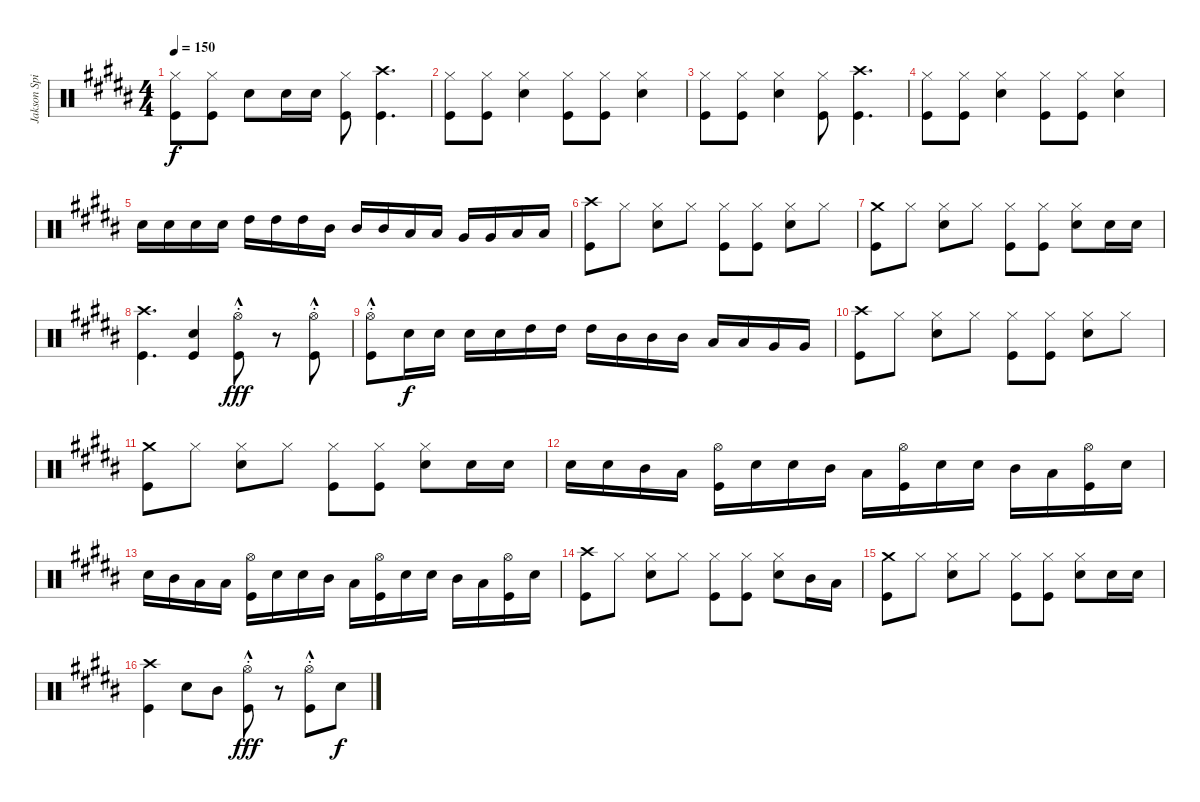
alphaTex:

\track ("Jakson Spires Drums" "Jakson Spi") {instrument percussion}
\staff {score}
\articulation defaults
\ts (4 4)
\tempo 150
\clef neutral
\ks b
("Hi-Hat (closed)" "Kick (hit)").8{dy f} ("Hi-Hat (closed)" "Kick (hit)").8 "Snare (hit) 2".8 "Snare (hit) 2".16 "Snare (hit) 2".16 ("Hi-Hat (closed)" "Kick (hit)").8 ("Crash high (hit)" "Kick (hit)").4{d} |
("Hi-Hat (closed)" "Kick (hit)").8 ("Hi-Hat (closed)" "Kick (hit)").8 ("Hi-Hat (closed)" "Snare (hit) 2").4 ("Hi-Hat (closed)" "Kick (hit)").8 ("Hi-Hat (closed)" "Kick (hit)").8 ("Hi-Hat (closed)" "Snare (hit) 2").4 |
("Hi-Hat (closed)" "Kick (hit)").8 ("Hi-Hat (closed)" "Kick (hit)").8 ("Hi-Hat (closed)" "Snare (hit) 2").4 ("Hi-Hat (closed)" "Kick (hit)").8 ("Crash high (hit)" "Kick (hit)").4{d} |
("Hi-Hat (closed)" "Kick (hit)").8 ("Hi-Hat (closed)" "Kick (hit)").8 ("Hi-Hat (closed)" "Snare (hit) 2").4 ("Hi-Hat (closed)" "Kick (hit)").8 ("Hi-Hat (closed)" "Kick (hit)").8 ("Hi-Hat (closed)" "Snare (hit) 2").4 |
"Snare (hit) 2".16 "Snare (hit) 2".16 "Snare (hit) 2".16 "Snare (hit) 2".16 "High Tom (hit)".16 "High Tom (hit)".16 "High Tom (hit)".16 "Mid Tom (hit)".16 "Mid Tom (hit)".16 "Mid Tom (hit)".16 "Low Tom (hit)".16 "Low Tom (hit)".16 "Very Low Tom (hit)".16 "Very Low Tom (hit)".16 "Low Floor Tom (hit)".16 "Low Floor Tom (hit)".16 |
("Crash high (hit)" "Kick (hit)").8 "Hi-Hat (closed)".8 ("Hi-Hat (closed)" "Snare (hit) 2").8 "Hi-Hat (closed)".8 ("Hi-Hat (closed)" "Kick (hit)").8 ("Hi-Hat (closed)" "Kick (hit)").8 ("Hi-Hat (closed)" "Snare (hit) 2").8 "Hi-Hat (closed)".8 |
("Crash medium (hit)" "Kick (hit)").8 "Hi-Hat (closed)".8 ("Hi-Hat (closed)" "Snare (hit) 2").8 "Hi-Hat (closed)".8 ("Hi-Hat (closed)" "Kick (hit)").8 ("Hi-Hat (closed)" "Kick (hit)").8 ("Hi-Hat (closed)" "Snare (hit) 2").8 "Snare (hit) 2".16 "Snare (hit) 2".16 |
("Crash high (hit)" "Kick (hit)").4{d} ("Snare (hit) 2" "Kick (hit)").4 ("Hi-Hat (open)"{hac st} "Kick (hit)").8{dy fff} r.8 ("Hi-Hat (open)"{hac st} "Kick (hit)").8 |
("Hi-Hat (open)"{hac st} "Kick (hit)").8 "Snare (hit) 2".16{dy f} "Snare (hit) 2".16 "Snare (hit) 2".16 "Snare (hit) 2".16 "High Tom (hit)".16 "High Tom (hit)".16 "High Tom (hit)".16 "Mid Tom (hit)".16 "Mid Tom (hit)".16 "Mid Tom (hit)".16 "Low Tom (hit)".16 "Low Tom (hit)".16 "Very Low Tom (hit)".16 "Very Low Tom (hit)".16 |
("Crash high (hit)" "Kick (hit)").8 "Hi-Hat (closed)".8 ("Hi-Hat (closed)" "Snare (hit) 2").8 "Hi-Hat (closed)".8 ("Hi-Hat (closed)" "Kick (hit)").8 ("Hi-Hat (closed)" "Kick (hit)").8 ("Hi-Hat (closed)" "Snare (hit) 2").8 "Hi-Hat (closed)".8 |
("Crash medium (hit)" "Kick (hit)").8 "Hi-Hat (closed)".8 ("Hi-Hat (closed)" "Snare (hit) 2").8 "Hi-Hat (closed)".8 ("Hi-Hat (closed)" "Kick (hit)").8 ("Hi-Hat (closed)" "Kick (hit)").8 ("Hi-Hat (closed)" "Snare (hit) 2").8 "Snare (hit) 2".16 "Snare (hit) 2".16 |
"Snare (hit) 2".16 "Snare (hit) 2".16 "Mid Tom (hit)".16 "Low Tom (hit)".16 ("Hi-Hat (open)" "Kick (hit)").16 "Snare (hit) 2".16 "Snare (hit) 2".16 "Mid Tom (hit)".16 "Low Tom (hit)".16 ("Hi-Hat (open)" "Kick (hit)").16 "Snare (hit) 2".16 "Snare (hit) 2".16 "Mid Tom (hit)".16 "Low Tom (hit)".16 ("Hi-Hat (open)" "Kick (hit)").16 "Snare (hit) 2".16 |
"Snare (hit) 2".16 "Mid Tom (hit)".16 "Low Tom (hit)".16 "Low Tom (hit)".16 ("Hi-Hat (open)" "Kick (hit)").16 "Snare (hit) 2".16 "Snare (hit) 2".16 "Mid Tom (hit)".16 "Low Tom (hit)".16 ("Hi-Hat (open)" "Kick (hit)").16 "Snare (hit) 2".16 "Snare (hit) 2".16 "Mid Tom (hit)".16 "Low Tom (hit)".16 ("Hi-Hat (open)" "Kick (hit)").16 "Snare (hit) 2".16 |
("Crash high (hit)" "Kick (hit)").8 "Hi-Hat (closed)".8 ("Hi-Hat (closed)" "Snare (hit) 2").8 "Hi-Hat (closed)".8 ("Hi-Hat (closed)" "Kick (hit)").8 ("Hi-Hat (closed)" "Kick (hit)").8 ("Hi-Hat (closed)" "Snare (hit) 2").8 "Mid Tom (hit)".16 "Low Tom (hit)".16 |
("Crash medium (hit)" "Kick (hit)").8 "Hi-Hat (closed)".8 ("Hi-Hat (closed)" "Snare (hit) 2").8 "Hi-Hat (closed)".8 ("Hi-Hat (closed)" "Kick (hit)").8 ("Hi-Hat (closed)" "Kick (hit)").8 ("Hi-Hat (closed)" "Snare (hit) 2").8 "Snare (hit) 2".16 "Snare (hit) 2".16 |
("Crash high (hit)" "Kick (hit)").4 "Snare (hit) 2".8 "Mid Tom (hit)".8 ("Hi-Hat (open)" "Kick (hit)"{hac st}).8{dy fff} r.8 ("Hi-Hat (open)" "Kick (hit)"{hac st}).8 "Snare (hit) 2".8{dy f}
